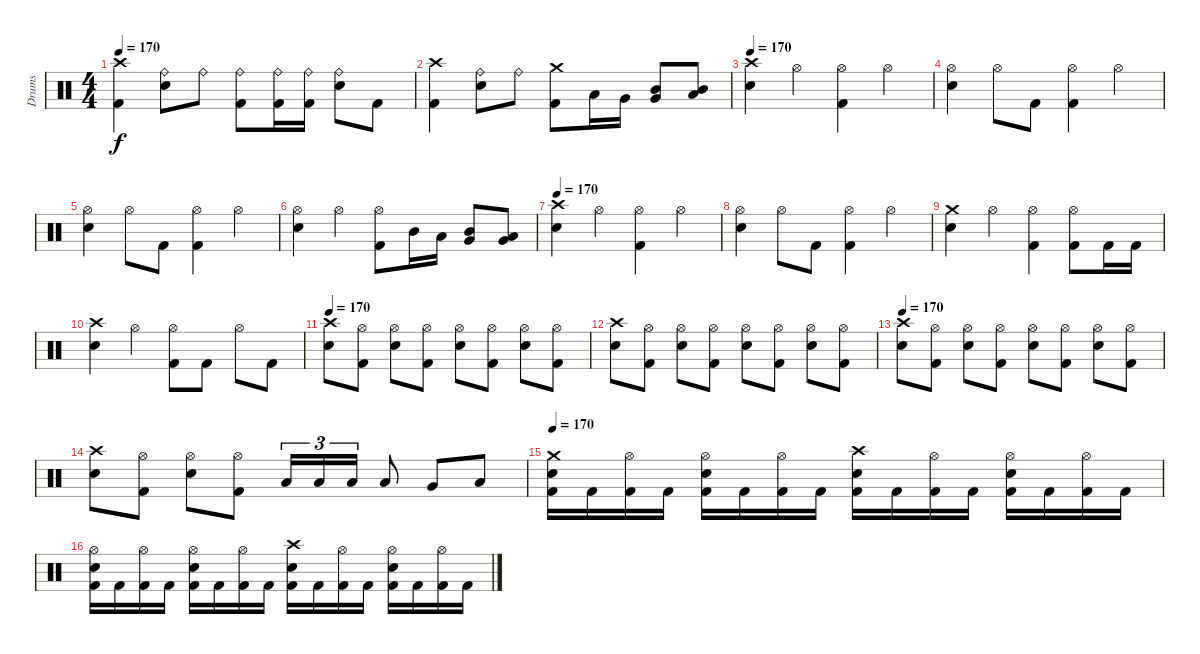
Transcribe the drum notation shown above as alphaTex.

\track ("Drums" "Drums") {instrument percussion}
\staff {score}
\articulation defaults
\ts (4 4)
\tempo 170
\clef neutral
\ks c
("Kick (hit) 2" "Crash high (hit)").4{dy f} ("Snare (hit) 2" "Ride (bell)").8 "Ride (bell)".8 ("Kick (hit) 2" "Ride (bell)").8 ("Kick (hit) 2" "Ride (bell)").16 ("Kick (hit) 2" "Ride (bell)").16 ("Snare (hit) 2" "Ride (bell)").8 "Kick (hit) 2".8 |
("Kick (hit) 2" "Crash high (hit)").4 ("Snare (hit) 2" "Ride (bell)").8 "Ride (bell)".8 ("Kick (hit) 2" "Crash medium (hit)").8 "Low Tom (hit)".16 "Very Low Tom (hit)".16 ("Mid Tom (hit)" "Very Low Tom (hit)").8 ("Mid Tom (hit)" "Low Floor Tom (hit)").8 |
\tempo 170
("Snare (hit) 2" "Crash high (hit)").4 "Hi-Hat (open)".4 ("Kick (hit) 2" "Hi-Hat (open)").4 "Hi-Hat (open)".4 |
("Snare (hit) 2" "Hi-Hat (open)").4 "Hi-Hat (open)".8 "Kick (hit) 2".8 ("Kick (hit) 2" "Hi-Hat (open)").4 "Hi-Hat (open)".4 |
("Snare (hit) 2" "Hi-Hat (open)").4 "Hi-Hat (open)".8 "Kick (hit) 2".8 ("Hi-Hat (open)" "Kick (hit) 2").4 "Hi-Hat (open)".4 |
("Snare (hit) 2" "Hi-Hat (open)").4 "Hi-Hat (open)".4 ("Kick (hit) 2" "Hi-Hat (open)").8 "Mid Tom (hit)".16 "Low Tom (hit)".16 ("Mid Tom (hit)" "Very Low Tom (hit)").8 ("Low Tom (hit)" "Very Low Tom (hit)").8 |
\tempo 170
("Snare (hit) 2" "Crash high (hit)").4 "Hi-Hat (open)".4 ("Kick (hit) 2" "Hi-Hat (open)").4 "Hi-Hat (open)".4 |
("Snare (hit) 2" "Hi-Hat (open)").4 "Hi-Hat (open)".8 "Kick (hit) 2".8 ("Kick (hit) 2" "Hi-Hat (open)").4 "Hi-Hat (open)".4 |
("Snare (hit) 2" "Crash medium (hit)").4 "Hi-Hat (open)".4 ("Kick (hit) 2" "Hi-Hat (open)").4 ("Hi-Hat (open)" "Kick (hit) 2").8 "Kick (hit) 2".16 "Kick (hit) 2".16 |
("Snare (hit) 2" "Crash high (hit)").4 "Hi-Hat (open)".4 ("Hi-Hat (open)" "Kick (hit) 2").8 "Kick (hit) 2".8 "Hi-Hat (open)".8 "Kick (hit) 2".8 |
\tempo 170
("Snare (hit) 2" "Crash high (hit)").8 ("Hi-Hat (open)" "Kick (hit) 2").8 ("Hi-Hat (open)" "Snare (hit) 2").8 ("Kick (hit) 2" "Hi-Hat (open)").8 ("Hi-Hat (open)" "Snare (hit) 2").8 ("Kick (hit) 2" "Hi-Hat (open)").8 ("Snare (hit) 2" "Hi-Hat (open)").8 ("Kick (hit) 2" "Hi-Hat (open)").8 |
("Snare (hit) 2" "Crash high (hit)").8 ("Hi-Hat (open)" "Kick (hit) 2").8 ("Hi-Hat (open)" "Snare (hit) 2").8 ("Kick (hit) 2" "Hi-Hat (open)").8 ("Hi-Hat (open)" "Snare (hit) 2").8 ("Kick (hit) 2" "Hi-Hat (open)").8 ("Snare (hit) 2" "Hi-Hat (open)").8 ("Kick (hit) 2" "Hi-Hat (open)").8 |
\tempo 170
("Snare (hit) 2" "Crash high (hit)").8 ("Hi-Hat (open)" "Kick (hit) 2").8 ("Hi-Hat (open)" "Snare (hit) 2").8 ("Kick (hit) 2" "Hi-Hat (open)").8 ("Hi-Hat (open)" "Snare (hit) 2").8 ("Kick (hit) 2" "Hi-Hat (open)").8 ("Snare (hit) 2" "Hi-Hat (open)").8 ("Kick (hit) 2" "Hi-Hat (open)").8 |
("Snare (hit) 2" "Crash high (hit)").8 ("Hi-Hat (open)" "Kick (hit) 2").8 ("Hi-Hat (open)" "Snare (hit) 2").8 ("Kick (hit) 2" "Hi-Hat (open)").8 "Low Tom (hit)".16{tu (3 2)} "Low Tom (hit)".16{tu (3 2)} "Low Tom (hit)".16{tu (3 2)} "Low Tom (hit)".8 "Very Low Tom (hit)".8 "Low Floor Tom (hit)".8 |
\tempo 170
("Snare (hit) 2" "Kick (hit) 2" "Crash medium (hit)").16 "Kick (hit) 2".16 ("Kick (hit) 2" "Hi-Hat (open)").16 "Kick (hit) 2".16 ("Kick (hit) 2" "Snare (hit) 2" "Hi-Hat (open)").16 "Kick (hit) 2".16 ("Kick (hit) 2" "Hi-Hat (open)").16 "Kick (hit) 2".16 ("Kick (hit) 2" "Snare (hit) 2" "Crash high (hit)").16 "Kick (hit) 2".16 ("Kick (hit) 2" "Hi-Hat (open)").16 "Kick (hit) 2".16 ("Kick (hit) 2" "Snare (hit) 2" "Hi-Hat (open)").16 "Kick (hit) 2".16 ("Kick (hit) 2" "Hi-Hat (open)").16 "Kick (hit) 2".16 |
("Snare (hit) 2" "Kick (hit) 2" "Hi-Hat (open)").16 "Kick (hit) 2".16 ("Kick (hit) 2" "Hi-Hat (open)").16 "Kick (hit) 2".16 ("Kick (hit) 2" "Snare (hit) 2" "Hi-Hat (open)").16 "Kick (hit) 2".16 ("Kick (hit) 2" "Hi-Hat (open)").16 "Kick (hit) 2".16 ("Kick (hit) 2" "Snare (hit) 2" "Crash high (hit)").16 "Kick (hit) 2".16 ("Kick (hit) 2" "Hi-Hat (open)").16 "Kick (hit) 2".16 ("Kick (hit) 2" "Snare (hit) 2" "Hi-Hat (open)").16 "Kick (hit) 2".16 ("Kick (hit) 2" "Hi-Hat (open)").16 "Kick (hit) 2".16
